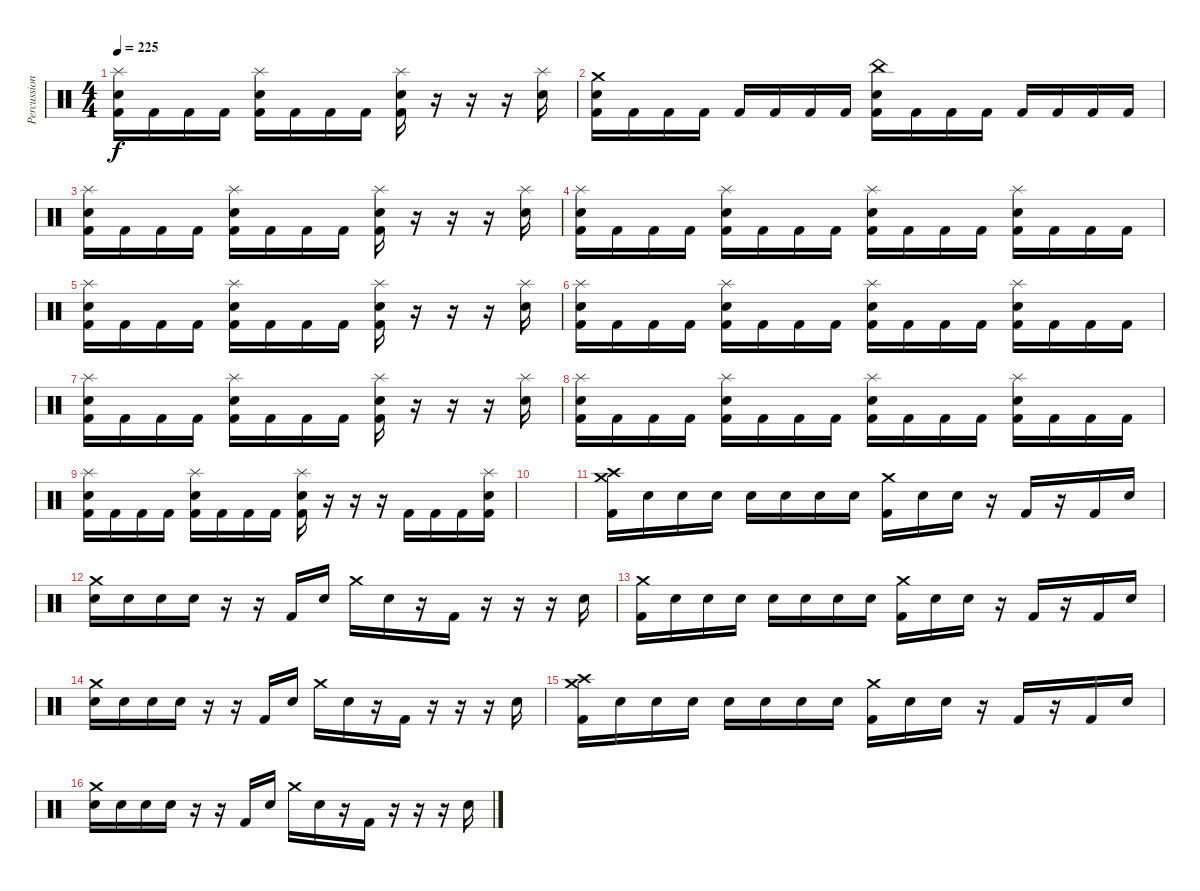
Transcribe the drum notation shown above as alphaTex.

\track ("Percussion" "Percussion") {instrument percussion}
\staff {score}
\articulation defaults
\ts (4 4)
\tempo 225
\clef neutral
\ks c
("Splash (hit)" "Snare (hit) 2" "Kick (hit) 2").16{dy f} "Kick (hit) 2".16 "Kick (hit) 2".16 "Kick (hit) 2".16 ("Splash (hit)" "Snare (hit) 2" "Kick (hit) 2").16 "Kick (hit) 2".16 "Kick (hit) 2".16 "Kick (hit) 2".16 ("Splash (hit)" "Snare (hit) 2" "Kick (hit) 2").16 r.16 r.16 r.16 ("Splash (hit)" "Snare (hit) 2").16 |
("Crash medium (hit)" "Snare (hit) 2" "Kick (hit) 2").16 "Kick (hit) 2".16 "Kick (hit) 2".16 "Kick (hit) 2".16 "Kick (hit) 2".16 "Kick (hit) 2".16 "Kick (hit) 2".16 "Kick (hit) 2".16 ("China (hit)" "Snare (hit) 2" "Kick (hit) 2").16 "Kick (hit) 2".16 "Kick (hit) 2".16 "Kick (hit) 2".16 "Kick (hit) 2".16 "Kick (hit) 2".16 "Kick (hit) 2".16 "Kick (hit) 2".16 |
("Splash (hit)" "Snare (hit) 2" "Kick (hit) 2").16 "Kick (hit) 2".16 "Kick (hit) 2".16 "Kick (hit) 2".16 ("Splash (hit)" "Snare (hit) 2" "Kick (hit) 2").16 "Kick (hit) 2".16 "Kick (hit) 2".16 "Kick (hit) 2".16 ("Splash (hit)" "Snare (hit) 2" "Kick (hit) 2").16 r.16 r.16 r.16 ("Splash (hit)" "Snare (hit) 2").16 |
("Splash (hit)" "Snare (hit) 2" "Kick (hit) 2").16 "Kick (hit) 2".16 "Kick (hit) 2".16 "Kick (hit) 2".16 ("Splash (hit)" "Snare (hit) 2" "Kick (hit) 2").16 "Kick (hit) 2".16 "Kick (hit) 2".16 "Kick (hit) 2".16 ("Splash (hit)" "Snare (hit) 2" "Kick (hit) 2").16 "Kick (hit) 2".16 "Kick (hit) 2".16 "Kick (hit) 2".16 ("Splash (hit)" "Snare (hit) 2" "Kick (hit) 2").16 "Kick (hit) 2".16 "Kick (hit) 2".16 "Kick (hit) 2".16 |
("Splash (hit)" "Snare (hit) 2" "Kick (hit) 2").16 "Kick (hit) 2".16 "Kick (hit) 2".16 "Kick (hit) 2".16 ("Splash (hit)" "Snare (hit) 2" "Kick (hit) 2").16 "Kick (hit) 2".16 "Kick (hit) 2".16 "Kick (hit) 2".16 ("Splash (hit)" "Snare (hit) 2" "Kick (hit) 2").16 r.16 r.16 r.16 ("Splash (hit)" "Snare (hit) 2").16 |
("Splash (hit)" "Snare (hit) 2" "Kick (hit) 2").16 "Kick (hit) 2".16 "Kick (hit) 2".16 "Kick (hit) 2".16 ("Splash (hit)" "Snare (hit) 2" "Kick (hit) 2").16 "Kick (hit) 2".16 "Kick (hit) 2".16 "Kick (hit) 2".16 ("Splash (hit)" "Snare (hit) 2" "Kick (hit) 2").16 "Kick (hit) 2".16 "Kick (hit) 2".16 "Kick (hit) 2".16 ("Splash (hit)" "Snare (hit) 2" "Kick (hit) 2").16 "Kick (hit) 2".16 "Kick (hit) 2".16 "Kick (hit) 2".16 |
("Splash (hit)" "Snare (hit) 2" "Kick (hit) 2").16 "Kick (hit) 2".16 "Kick (hit) 2".16 "Kick (hit) 2".16 ("Splash (hit)" "Snare (hit) 2" "Kick (hit) 2").16 "Kick (hit) 2".16 "Kick (hit) 2".16 "Kick (hit) 2".16 ("Splash (hit)" "Snare (hit) 2" "Kick (hit) 2").16 r.16 r.16 r.16 ("Splash (hit)" "Snare (hit) 2").16 |
("Splash (hit)" "Snare (hit) 2" "Kick (hit) 2").16 "Kick (hit) 2".16 "Kick (hit) 2".16 "Kick (hit) 2".16 ("Splash (hit)" "Snare (hit) 2" "Kick (hit) 2").16 "Kick (hit) 2".16 "Kick (hit) 2".16 "Kick (hit) 2".16 ("Splash (hit)" "Snare (hit) 2" "Kick (hit) 2").16 "Kick (hit) 2".16 "Kick (hit) 2".16 "Kick (hit) 2".16 ("Splash (hit)" "Snare (hit) 2" "Kick (hit) 2").16 "Kick (hit) 2".16 "Kick (hit) 2".16 "Kick (hit) 2".16 |
("Splash (hit)" "Snare (hit) 2" "Kick (hit) 2").16 "Kick (hit) 2".16 "Kick (hit) 2".16 "Kick (hit) 2".16 ("Splash (hit)" "Snare (hit) 2" "Kick (hit) 2").16 "Kick (hit) 2".16 "Kick (hit) 2".16 "Kick (hit) 2".16 ("Splash (hit)" "Snare (hit) 2" "Kick (hit) 2").16 r.16 r.16 r.16 "Kick (hit) 2".16 "Kick (hit) 2".16 "Kick (hit) 2".16 ("Splash (hit)" "Snare (hit) 2" "Kick (hit) 2").16 |
|
("Crash high (hit)" "Crash medium (hit)" "Kick (hit) 2").16 "Snare (hit)".16 "Snare (hit)".16 "Snare (hit)".16 "Snare (hit)".16 "Snare (hit)".16 "Snare (hit)".16 "Snare (hit)".16 ("Crash medium (hit)" "Kick (hit) 2").16 "Snare (hit)".16 "Snare (hit)".16 r.16 "Kick (hit) 2".16 r.16 "Kick (hit) 2".16 "Snare (hit)".16 |
("Crash medium (hit)" "Snare (hit) 2").16 "Snare (hit)".16 "Snare (hit)".16 "Snare (hit)".16 r.16 r.16 "Kick (hit) 2".16 "Snare (hit)".16 "Crash medium (hit)".16 "Snare (hit)".16 r.16 "Kick (hit) 2".16 r.16 r.16 r.16 "Snare (hit)".16 |
("Crash medium (hit)" "Kick (hit) 2").16 "Snare (hit)".16 "Snare (hit)".16 "Snare (hit)".16 "Snare (hit)".16 "Snare (hit)".16 "Snare (hit)".16 "Snare (hit)".16 ("Crash medium (hit)" "Kick (hit) 2").16 "Snare (hit)".16 "Snare (hit)".16 r.16 "Kick (hit) 2".16 r.16 "Kick (hit) 2".16 "Snare (hit)".16 |
("Crash medium (hit)" "Snare (hit) 2").16 "Snare (hit)".16 "Snare (hit)".16 "Snare (hit)".16 r.16 r.16 "Kick (hit) 2".16 "Snare (hit)".16 "Crash medium (hit)".16 "Snare (hit)".16 r.16 "Kick (hit) 2".16 r.16 r.16 r.16 "Snare (hit)".16 |
("Crash high (hit)" "Crash medium (hit)" "Kick (hit) 2").16 "Snare (hit)".16 "Snare (hit)".16 "Snare (hit)".16 "Snare (hit)".16 "Snare (hit)".16 "Snare (hit)".16 "Snare (hit)".16 ("Crash medium (hit)" "Kick (hit) 2").16 "Snare (hit)".16 "Snare (hit)".16 r.16 "Kick (hit) 2".16 r.16 "Kick (hit) 2".16 "Snare (hit)".16 |
("Crash medium (hit)" "Snare (hit) 2").16 "Snare (hit)".16 "Snare (hit)".16 "Snare (hit)".16 r.16 r.16 "Kick (hit) 2".16 "Snare (hit)".16 "Crash medium (hit)".16 "Snare (hit)".16 r.16 "Kick (hit) 2".16 r.16 r.16 r.16 "Snare (hit)".16
